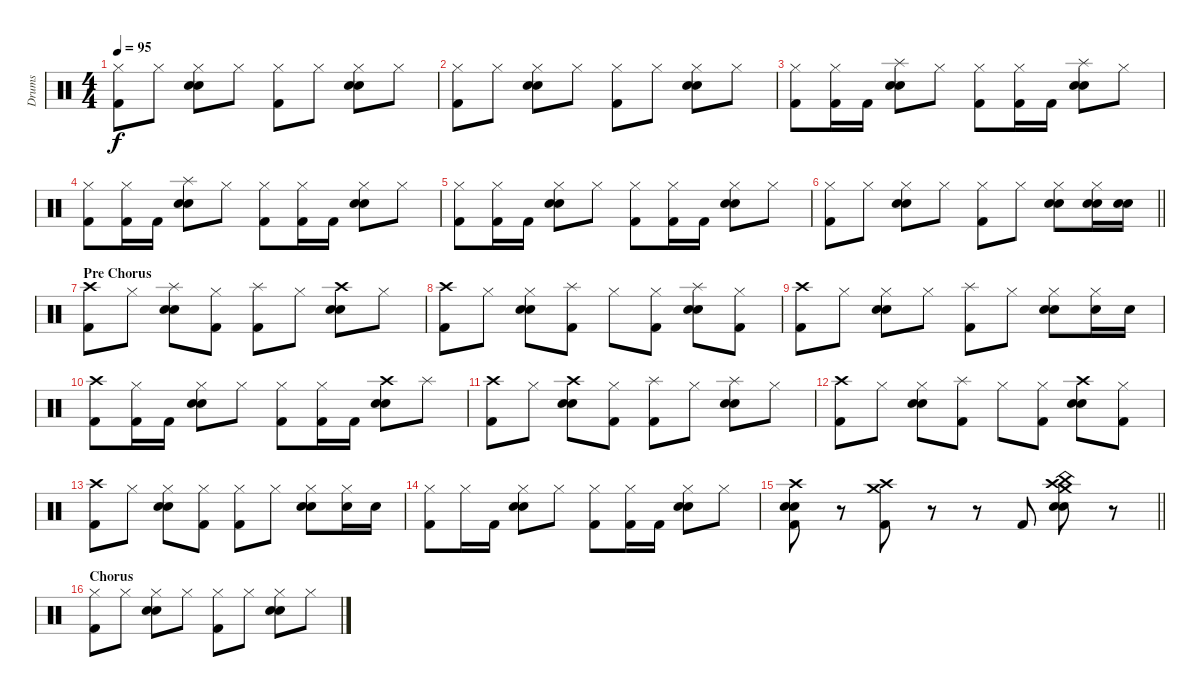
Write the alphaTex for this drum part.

\track ("Drums" "Drums") {instrument percussion}
\staff {score}
\articulation defaults
\ts (4 4)
\tempo 95
\clef neutral
\ks aminor
("Hi-Hat (closed)" "Kick (hit) 2").8{dy f} "Hi-Hat (closed)".8 ("Hi-Hat (closed)" "Snare (hit) 2" "Electric Snare (hit)").8 "Hi-Hat (closed)".8 ("Hi-Hat (closed)" "Kick (hit) 2").8 "Hi-Hat (closed)".8 ("Hi-Hat (closed)" "Snare (hit) 2" "Electric Snare (hit)").8 "Hi-Hat (closed)".8 |
("Hi-Hat (closed)" "Kick (hit) 2").8 "Hi-Hat (closed)".8 ("Hi-Hat (closed)" "Snare (hit) 2" "Electric Snare (hit)").8 "Hi-Hat (closed)".8 ("Hi-Hat (closed)" "Kick (hit) 2").8 "Hi-Hat (closed)".8 ("Hi-Hat (closed)" "Snare (hit) 2" "Electric Snare (hit)").8 "Hi-Hat (closed)".8 |
("Hi-Hat (closed)" "Kick (hit) 2").8 ("Hi-Hat (closed)" "Kick (hit) 2").16 "Kick (hit) 2".16 ("Splash (hit)" "Snare (hit) 2" "Electric Snare (hit)").8 "Hi-Hat (closed)".8 ("Hi-Hat (closed)" "Kick (hit) 2").8 ("Hi-Hat (closed)" "Kick (hit) 2").16 "Kick (hit) 2".16 ("Splash (hit)" "Snare (hit) 2" "Electric Snare (hit)").8 "Hi-Hat (closed)".8 |
("Hi-Hat (closed)" "Kick (hit) 2").8 ("Hi-Hat (closed)" "Kick (hit) 2").16 "Kick (hit) 2".16 ("Splash (hit)" "Snare (hit) 2" "Electric Snare (hit)").8 "Hi-Hat (closed)".8 ("Hi-Hat (closed)" "Kick (hit) 2").8 ("Hi-Hat (closed)" "Kick (hit) 2").16 "Kick (hit) 2".16 ("Hi-Hat (closed)" "Snare (hit) 2" "Electric Snare (hit)").8 "Hi-Hat (closed)".8 |
("Hi-Hat (closed)" "Kick (hit) 2").8 ("Hi-Hat (closed)" "Kick (hit) 2").16 "Kick (hit) 2".16 ("Hi-Hat (closed)" "Snare (hit) 2" "Electric Snare (hit)").8 "Hi-Hat (closed)".8 ("Hi-Hat (closed)" "Kick (hit) 2").8 ("Hi-Hat (closed)" "Kick (hit) 2").16 "Kick (hit) 2".16 ("Hi-Hat (closed)" "Snare (hit) 2" "Electric Snare (hit)").8 "Hi-Hat (closed)".8 |
\barLineRight lightlight
("Hi-Hat (closed)" "Kick (hit) 2").8 "Hi-Hat (closed)".8 ("Hi-Hat (closed)" "Snare (hit) 2" "Electric Snare (hit)").8 "Hi-Hat (closed)".8 ("Hi-Hat (closed)" "Kick (hit) 2").8 "Hi-Hat (closed)".8 ("Hi-Hat (closed)" "Snare (hit) 2" "Electric Snare (hit)").8 ("Hi-Hat (closed)" "Snare (hit) 2" "Electric Snare (hit)").16 ("Snare (hit) 2" "Electric Snare (hit)").16 |
\section ("" "Pre Chorus")
("Crash high (hit)" "Kick (hit) 2").8 "Hi-Hat (closed)".8 ("Splash (hit)" "Snare (hit) 2" "Electric Snare (hit)").8 ("Hi-Hat (closed)" "Kick (hit) 2").8 ("Splash (hit)" "Kick (hit) 2").8 "Hi-Hat (closed)".8 ("Crash high (hit)" "Snare (hit) 2" "Electric Snare (hit)").8 "Hi-Hat (closed)".8 |
("Crash high (hit)" "Kick (hit) 2").8 "Hi-Hat (closed)".8 ("Hi-Hat (closed)" "Snare (hit) 2" "Electric Snare (hit)").8 ("Splash (hit)" "Kick (hit) 2").8 "Hi-Hat (closed)".8 ("Hi-Hat (closed)" "Kick (hit) 2").8 ("Splash (hit)" "Snare (hit) 2" "Electric Snare (hit)").8 ("Hi-Hat (closed)" "Kick (hit) 2").8 |
("Crash high (hit)" "Kick (hit) 2").8 "Hi-Hat (closed)".8 ("Hi-Hat (closed)" "Snare (hit) 2" "Electric Snare (hit)").8 "Hi-Hat (closed)".8 ("Splash (hit)" "Kick (hit) 2").8 "Hi-Hat (closed)".8 ("Hi-Hat (closed)" "Snare (hit) 2" "Electric Snare (hit)").8 ("Hi-Hat (closed)" "Electric Snare (hit)").16 "Electric Snare (hit)".16 |
("Crash high (hit)" "Kick (hit) 2").8 ("Hi-Hat (closed)" "Kick (hit) 2").16 "Kick (hit) 2".16 ("Hi-Hat (closed)" "Snare (hit) 2" "Electric Snare (hit)").8 "Hi-Hat (closed)".8 ("Hi-Hat (closed)" "Kick (hit) 2").8 ("Hi-Hat (closed)" "Kick (hit) 2").16 "Kick (hit) 2".16 ("Crash high (hit)" "Snare (hit) 2" "Electric Snare (hit)").8 "Splash (hit)".8 |
("Crash high (hit)" "Kick (hit) 2").8 "Hi-Hat (closed)".8 ("Crash high (hit)" "Snare (hit) 2" "Electric Snare (hit)").8 ("Hi-Hat (closed)" "Kick (hit) 2").8 ("Splash (hit)" "Kick (hit) 2").8 "Hi-Hat (closed)".8 ("Splash (hit)" "Snare (hit) 2" "Electric Snare (hit)").8 "Hi-Hat (closed)".8 |
("Crash high (hit)" "Kick (hit) 2").8 "Hi-Hat (closed)".8 ("Hi-Hat (closed)" "Snare (hit) 2" "Electric Snare (hit)").8 ("Splash (hit)" "Kick (hit) 2").8 "Hi-Hat (closed)".8 ("Hi-Hat (closed)" "Kick (hit) 2").8 ("Crash high (hit)" "Snare (hit) 2" "Electric Snare (hit)").8 ("Hi-Hat (closed)" "Kick (hit) 2").8 |
("Crash high (hit)" "Kick (hit) 2").8 "Hi-Hat (closed)".8 ("Hi-Hat (closed)" "Snare (hit) 2" "Electric Snare (hit)").8 ("Hi-Hat (closed)" "Kick (hit) 2").8 ("Hi-Hat (closed)" "Kick (hit) 2").8 "Hi-Hat (closed)".8 ("Hi-Hat (closed)" "Snare (hit) 2" "Electric Snare (hit)").8 ("Hi-Hat (closed)" "Electric Snare (hit)").16 "Electric Snare (hit)".16 |
("Hi-Hat (closed)" "Kick (hit) 2").8 "Hi-Hat (closed)".16 "Kick (hit) 2".16 ("Hi-Hat (closed)" "Snare (hit) 2" "Electric Snare (hit)").8 "Hi-Hat (closed)".8 ("Hi-Hat (closed)" "Kick (hit) 2").8 ("Hi-Hat (closed)" "Kick (hit) 2").16 "Kick (hit) 2".16 ("Hi-Hat (closed)" "Snare (hit) 2" "Electric Snare (hit)").8 "Hi-Hat (closed)".8 |
\barLineRight lightlight
("Crash high (hit)" "Snare (hit) 2" "Electric Snare (hit)" "Kick (hit) 2").8 r.8 ("Crash high (hit)" "Crash medium (hit)" "Kick (hit) 2").8 r.8 r.8 "Kick (hit) 2".8 ("Crash high (hit)" "Crash medium (hit)" "China (hit)" "Snare (hit) 2" "Electric Snare (hit)").8 r.8 |
\section ("" "Chorus")
("Hi-Hat (closed)" "Kick (hit) 2").8 "Hi-Hat (closed)".8 ("Hi-Hat (closed)" "Snare (hit) 2" "Electric Snare (hit)").8 "Hi-Hat (closed)".8 ("Hi-Hat (closed)" "Kick (hit) 2").8 "Hi-Hat (closed)".8 ("Hi-Hat (closed)" "Snare (hit) 2" "Electric Snare (hit)").8 "Hi-Hat (closed)".8
